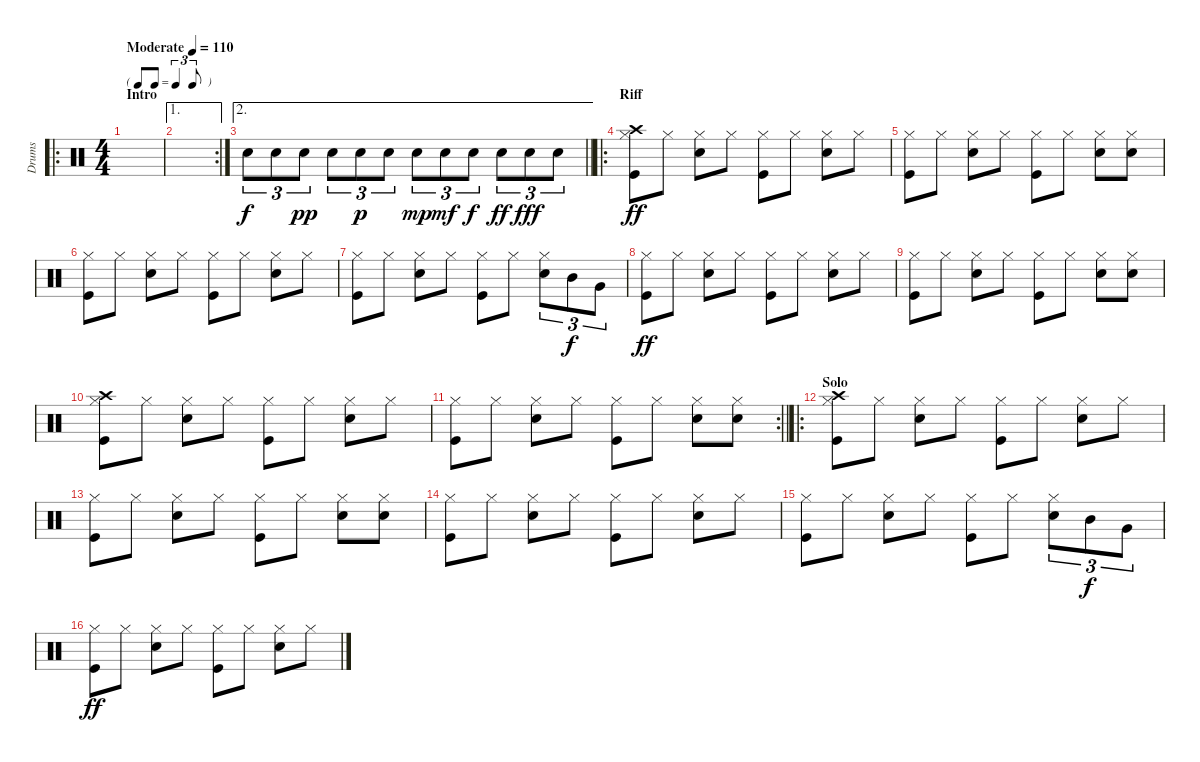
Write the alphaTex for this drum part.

\track ("Drums" "Drums") {instrument percussion}
\staff {score}
\articulation defaults
\ro
\ts (4 4)
\tf triplet8th
\section ("" "Intro")
\tempo (110 "Moderate")
\clef neutral
\ks c
|
\ae 1
\rc 2
|
\ae 2
\barLineRight lightlight "Snare (hit) 2".8{tu (3 2)} "Snare (hit) 2".8{tu (3 2)} "Snare (hit) 2".8{tu (3 2) dy pp} "Snare (hit) 2".8{tu (3 2)} "Snare (hit) 2".8{tu (3 2) dy p} "Snare (hit) 2".8{tu (3 2)} "Snare (hit) 2".8{tu (3 2) dy mp} "Snare (hit) 2".8{tu (3 2) dy mf} "Snare (hit) 2".8{tu (3 2) dy f} "Snare (hit) 2".8{tu (3 2) dy ff} "Snare (hit) 2".8{tu (3 2) dy fff} "Snare (hit) 2".8{tu (3 2)}
|
\ro
\section ("" "Riff")
("Hi-Hat (closed)" "Kick (hit)" "Crash high (hit)").8{dy ff} "Hi-Hat (closed)".8 ("Hi-Hat (closed)" "Snare (hit) 2").8 "Hi-Hat (closed)".8 ("Hi-Hat (closed)" "Kick (hit)").8 "Hi-Hat (closed)".8 ("Hi-Hat (closed)" "Snare (hit) 2").8 "Hi-Hat (closed)".8 |
("Hi-Hat (closed)" "Kick (hit)").8 "Hi-Hat (closed)".8 ("Hi-Hat (closed)" "Snare (hit) 2").8 "Hi-Hat (closed)".8 ("Hi-Hat (closed)" "Kick (hit)").8 "Hi-Hat (closed)".8 ("Hi-Hat (closed)" "Snare (hit) 2").8 ("Hi-Hat (closed)" "Snare (hit) 2").8 |
("Hi-Hat (closed)" "Kick (hit)").8 "Hi-Hat (closed)".8 ("Hi-Hat (closed)" "Snare (hit) 2").8 "Hi-Hat (closed)".8 ("Hi-Hat (closed)" "Kick (hit)").8 "Hi-Hat (closed)".8 ("Hi-Hat (closed)" "Snare (hit) 2").8 "Hi-Hat (closed)".8 |
("Hi-Hat (closed)" "Kick (hit)").8 "Hi-Hat (closed)".8 ("Hi-Hat (closed)" "Snare (hit) 2").8 "Hi-Hat (closed)".8 ("Hi-Hat (closed)" "Kick (hit)").8 "Hi-Hat (closed)".8 ("Hi-Hat (closed)" "Snare (hit) 2").8{tu (3 2)} "Mid Tom (hit)".8{tu (3 2) dy f} "Very Low Tom (hit)".8{tu (3 2)} |
("Hi-Hat (closed)" "Kick (hit)").8{dy ff} "Hi-Hat (closed)".8 ("Hi-Hat (closed)" "Snare (hit) 2").8 "Hi-Hat (closed)".8 ("Hi-Hat (closed)" "Kick (hit)").8 "Hi-Hat (closed)".8 ("Hi-Hat (closed)" "Snare (hit) 2").8 "Hi-Hat (closed)".8 |
("Hi-Hat (closed)" "Kick (hit)").8 "Hi-Hat (closed)".8 ("Hi-Hat (closed)" "Snare (hit) 2").8 "Hi-Hat (closed)".8 ("Hi-Hat (closed)" "Kick (hit)").8 "Hi-Hat (closed)".8 ("Hi-Hat (closed)" "Snare (hit) 2").8 ("Hi-Hat (closed)" "Snare (hit) 2").8 |
("Hi-Hat (closed)" "Kick (hit)" "Crash high (hit)").8 "Hi-Hat (closed)".8 ("Hi-Hat (closed)" "Snare (hit) 2").8 "Hi-Hat (closed)".8 ("Hi-Hat (closed)" "Kick (hit)").8 "Hi-Hat (closed)".8 ("Hi-Hat (closed)" "Snare (hit) 2").8 "Hi-Hat (closed)".8 |
\rc 2
\barLineRight lightlight
("Hi-Hat (closed)" "Kick (hit)").8 "Hi-Hat (closed)".8 ("Hi-Hat (closed)" "Snare (hit) 2").8 "Hi-Hat (closed)".8 ("Hi-Hat (closed)" "Kick (hit)").8 "Hi-Hat (closed)".8 ("Hi-Hat (closed)" "Snare (hit) 2").8 ("Hi-Hat (closed)" "Snare (hit) 2").8 |
\ro
\section ("" "Solo")
("Hi-Hat (closed)" "Kick (hit)" "Crash high (hit)").8 "Hi-Hat (closed)".8 ("Hi-Hat (closed)" "Snare (hit) 2").8 "Hi-Hat (closed)".8 ("Hi-Hat (closed)" "Kick (hit)").8 "Hi-Hat (closed)".8 ("Hi-Hat (closed)" "Snare (hit) 2").8 "Hi-Hat (closed)".8 |
("Hi-Hat (closed)" "Kick (hit)").8 "Hi-Hat (closed)".8 ("Hi-Hat (closed)" "Snare (hit) 2").8 "Hi-Hat (closed)".8 ("Hi-Hat (closed)" "Kick (hit)").8 "Hi-Hat (closed)".8 ("Hi-Hat (closed)" "Snare (hit) 2").8 ("Hi-Hat (closed)" "Snare (hit) 2").8 |
("Hi-Hat (closed)" "Kick (hit)").8 "Hi-Hat (closed)".8 ("Hi-Hat (closed)" "Snare (hit) 2").8 "Hi-Hat (closed)".8 ("Hi-Hat (closed)" "Kick (hit)").8 "Hi-Hat (closed)".8 ("Hi-Hat (closed)" "Snare (hit) 2").8 "Hi-Hat (closed)".8 |
("Hi-Hat (closed)" "Kick (hit)").8 "Hi-Hat (closed)".8 ("Hi-Hat (closed)" "Snare (hit) 2").8 "Hi-Hat (closed)".8 ("Hi-Hat (closed)" "Kick (hit)").8 "Hi-Hat (closed)".8 ("Hi-Hat (closed)" "Snare (hit) 2").8{tu (3 2)} "Mid Tom (hit)".8{tu (3 2) dy f} "Very Low Tom (hit)".8{tu (3 2)} |
("Hi-Hat (closed)" "Kick (hit)").8{dy ff} "Hi-Hat (closed)".8 ("Hi-Hat (closed)" "Snare (hit) 2").8 "Hi-Hat (closed)".8 ("Hi-Hat (closed)" "Kick (hit)").8 "Hi-Hat (closed)".8 ("Hi-Hat (closed)" "Snare (hit) 2").8 "Hi-Hat (closed)".8
